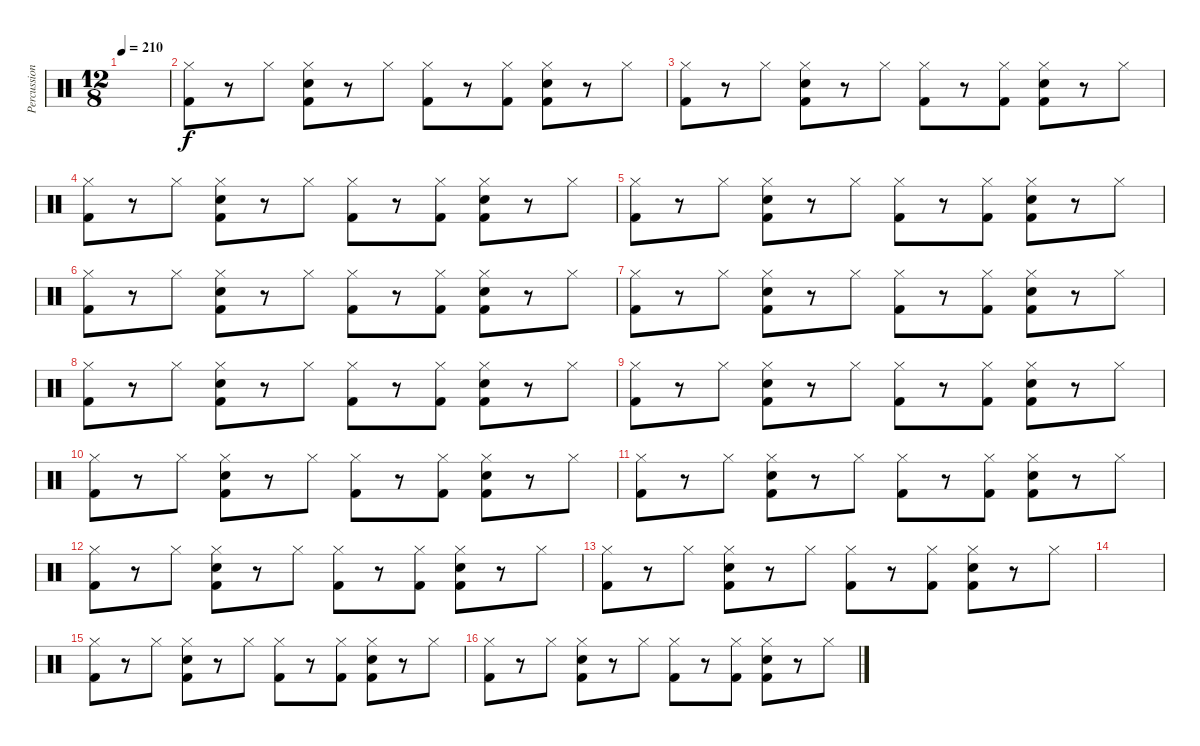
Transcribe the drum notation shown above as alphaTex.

\track ("Percussions" "Percussion") {instrument percussion}
\staff {score}
\articulation defaults
\ts (12 8)
\tempo 210
\clef neutral
\ks c
|
("Kick (hit) 2" "Hi-Hat (closed)").8 r.8 "Hi-Hat (closed)".8 ("Snare (hit) 2" "Kick (hit) 2" "Hi-Hat (closed)").8 r.8 "Hi-Hat (closed)".8 ("Kick (hit) 2" "Hi-Hat (closed)").8 r.8 ("Kick (hit) 2" "Hi-Hat (closed)").8 ("Snare (hit) 2" "Kick (hit) 2" "Hi-Hat (closed)").8 r.8 "Hi-Hat (closed)".8 |
("Kick (hit) 2" "Hi-Hat (closed)").8 r.8 "Hi-Hat (closed)".8 ("Snare (hit) 2" "Kick (hit) 2" "Hi-Hat (closed)").8 r.8 "Hi-Hat (closed)".8 ("Kick (hit) 2" "Hi-Hat (closed)").8 r.8 ("Kick (hit) 2" "Hi-Hat (closed)").8 ("Snare (hit) 2" "Kick (hit) 2" "Hi-Hat (closed)").8 r.8 "Hi-Hat (closed)".8 |
("Kick (hit) 2" "Hi-Hat (closed)").8 r.8 "Hi-Hat (closed)".8 ("Snare (hit) 2" "Kick (hit) 2" "Hi-Hat (closed)").8 r.8 "Hi-Hat (closed)".8 ("Kick (hit) 2" "Hi-Hat (closed)").8 r.8 ("Kick (hit) 2" "Hi-Hat (closed)").8 ("Snare (hit) 2" "Kick (hit) 2" "Hi-Hat (closed)").8 r.8 "Hi-Hat (closed)".8 |
("Kick (hit) 2" "Hi-Hat (closed)").8 r.8 "Hi-Hat (closed)".8 ("Snare (hit) 2" "Kick (hit) 2" "Hi-Hat (closed)").8 r.8 "Hi-Hat (closed)".8 ("Kick (hit) 2" "Hi-Hat (closed)").8 r.8 ("Kick (hit) 2" "Hi-Hat (closed)").8 ("Snare (hit) 2" "Kick (hit) 2" "Hi-Hat (closed)").8 r.8 "Hi-Hat (closed)".8 |
("Kick (hit) 2" "Hi-Hat (closed)").8 r.8 "Hi-Hat (closed)".8 ("Snare (hit) 2" "Kick (hit) 2" "Hi-Hat (closed)").8 r.8 "Hi-Hat (closed)".8 ("Kick (hit) 2" "Hi-Hat (closed)").8 r.8 ("Kick (hit) 2" "Hi-Hat (closed)").8 ("Snare (hit) 2" "Kick (hit) 2" "Hi-Hat (closed)").8 r.8 "Hi-Hat (closed)".8 |
("Kick (hit) 2" "Hi-Hat (closed)").8 r.8 "Hi-Hat (closed)".8 ("Snare (hit) 2" "Kick (hit) 2" "Hi-Hat (closed)").8 r.8 "Hi-Hat (closed)".8 ("Kick (hit) 2" "Hi-Hat (closed)").8 r.8 ("Kick (hit) 2" "Hi-Hat (closed)").8 ("Snare (hit) 2" "Kick (hit) 2" "Hi-Hat (closed)").8 r.8 "Hi-Hat (closed)".8 |
("Kick (hit) 2" "Hi-Hat (closed)").8 r.8 "Hi-Hat (closed)".8 ("Snare (hit) 2" "Kick (hit) 2" "Hi-Hat (closed)").8 r.8 "Hi-Hat (closed)".8 ("Kick (hit) 2" "Hi-Hat (closed)").8 r.8 ("Kick (hit) 2" "Hi-Hat (closed)").8 ("Snare (hit) 2" "Kick (hit) 2" "Hi-Hat (closed)").8 r.8 "Hi-Hat (closed)".8 |
("Kick (hit) 2" "Hi-Hat (closed)").8 r.8 "Hi-Hat (closed)".8 ("Snare (hit) 2" "Kick (hit) 2" "Hi-Hat (closed)").8 r.8 "Hi-Hat (closed)".8 ("Kick (hit) 2" "Hi-Hat (closed)").8 r.8 ("Kick (hit) 2" "Hi-Hat (closed)").8 ("Snare (hit) 2" "Kick (hit) 2" "Hi-Hat (closed)").8 r.8 "Hi-Hat (closed)".8 |
("Kick (hit) 2" "Hi-Hat (closed)").8 r.8 "Hi-Hat (closed)".8 ("Snare (hit) 2" "Kick (hit) 2" "Hi-Hat (closed)").8 r.8 "Hi-Hat (closed)".8 ("Kick (hit) 2" "Hi-Hat (closed)").8 r.8 ("Kick (hit) 2" "Hi-Hat (closed)").8 ("Snare (hit) 2" "Kick (hit) 2" "Hi-Hat (closed)").8 r.8 "Hi-Hat (closed)".8 |
("Kick (hit) 2" "Hi-Hat (closed)").8 r.8 "Hi-Hat (closed)".8 ("Snare (hit) 2" "Kick (hit) 2" "Hi-Hat (closed)").8 r.8 "Hi-Hat (closed)".8 ("Kick (hit) 2" "Hi-Hat (closed)").8 r.8 ("Kick (hit) 2" "Hi-Hat (closed)").8 ("Snare (hit) 2" "Kick (hit) 2" "Hi-Hat (closed)").8 r.8 "Hi-Hat (closed)".8 |
("Kick (hit) 2" "Hi-Hat (closed)").8 r.8 "Hi-Hat (closed)".8 ("Snare (hit) 2" "Kick (hit) 2" "Hi-Hat (closed)").8 r.8 "Hi-Hat (closed)".8 ("Kick (hit) 2" "Hi-Hat (closed)").8 r.8 ("Kick (hit) 2" "Hi-Hat (closed)").8 ("Snare (hit) 2" "Kick (hit) 2" "Hi-Hat (closed)").8 r.8 "Hi-Hat (closed)".8 |
("Kick (hit) 2" "Hi-Hat (closed)").8 r.8 "Hi-Hat (closed)".8 ("Snare (hit) 2" "Kick (hit) 2" "Hi-Hat (closed)").8 r.8 "Hi-Hat (closed)".8 ("Kick (hit) 2" "Hi-Hat (closed)").8 r.8 ("Kick (hit) 2" "Hi-Hat (closed)").8 ("Snare (hit) 2" "Kick (hit) 2" "Hi-Hat (closed)").8 r.8 "Hi-Hat (closed)".8 |
|
("Kick (hit) 2" "Hi-Hat (closed)").8 r.8 "Hi-Hat (closed)".8 ("Snare (hit) 2" "Kick (hit) 2" "Hi-Hat (closed)").8 r.8 "Hi-Hat (closed)".8 ("Kick (hit) 2" "Hi-Hat (closed)").8 r.8 ("Kick (hit) 2" "Hi-Hat (closed)").8 ("Snare (hit) 2" "Kick (hit) 2" "Hi-Hat (closed)").8 r.8 "Hi-Hat (closed)".8 |
("Kick (hit) 2" "Hi-Hat (closed)").8 r.8 "Hi-Hat (closed)".8 ("Snare (hit) 2" "Kick (hit) 2" "Hi-Hat (closed)").8 r.8 "Hi-Hat (closed)".8 ("Kick (hit) 2" "Hi-Hat (closed)").8 r.8 ("Kick (hit) 2" "Hi-Hat (closed)").8 ("Snare (hit) 2" "Kick (hit) 2" "Hi-Hat (closed)").8 r.8 "Hi-Hat (closed)".8
